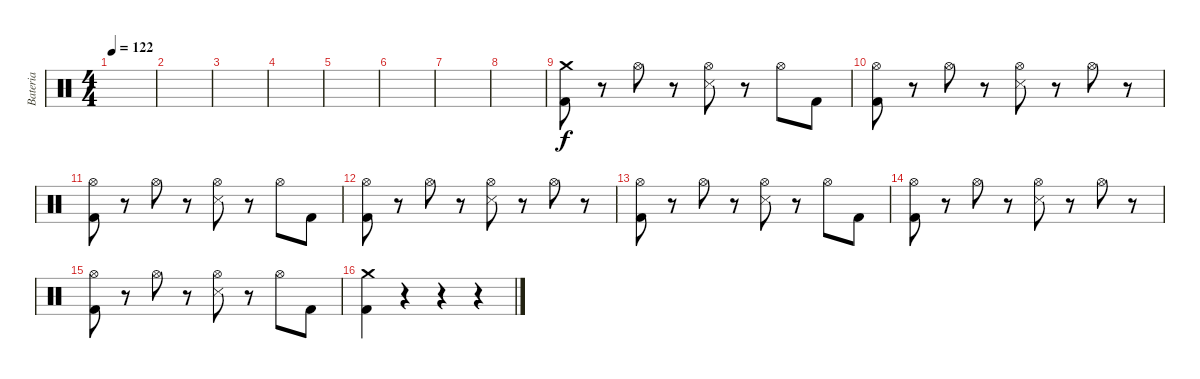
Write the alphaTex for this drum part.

\track ("Bateria" "Bateria") {instrument percussion}
\staff {score}
\articulation defaults
\ts (4 4)
\tempo 122
\clef neutral
\ks c
|
|
|
|
|
|
|
|
("Crash medium (hit)" "Kick (hit) 2").8 r.8 "Hi-Hat (open)".8 r.8 ("Hi-Hat (open)" "Snare (side stick) 3").8 r.8 "Hi-Hat (open)".8 "Kick (hit) 2".8 |
("Hi-Hat (open)" "Kick (hit) 2").8 r.8 "Hi-Hat (open)".8 r.8 ("Hi-Hat (open)" "Snare (side stick) 3").8 r.8 "Hi-Hat (open)".8 r.8 |
("Hi-Hat (open)" "Kick (hit) 2").8 r.8 "Hi-Hat (open)".8 r.8 ("Hi-Hat (open)" "Snare (side stick) 3").8 r.8 "Hi-Hat (open)".8 "Kick (hit) 2".8 |
("Hi-Hat (open)" "Kick (hit) 2").8 r.8 "Hi-Hat (open)".8 r.8 ("Hi-Hat (open)" "Snare (side stick) 3").8 r.8 "Hi-Hat (open)".8 r.8 |
("Hi-Hat (open)" "Kick (hit) 2").8 r.8 "Hi-Hat (open)".8 r.8 ("Hi-Hat (open)" "Snare (side stick) 3").8 r.8 "Hi-Hat (open)".8 "Kick (hit) 2".8 |
("Hi-Hat (open)" "Kick (hit) 2").8 r.8 "Hi-Hat (open)".8 r.8 ("Hi-Hat (open)" "Snare (side stick) 3").8 r.8 "Hi-Hat (open)".8 r.8 |
("Hi-Hat (open)" "Kick (hit) 2").8 r.8 "Hi-Hat (open)".8 r.8 ("Hi-Hat (open)" "Snare (side stick) 3").8 r.8 "Hi-Hat (open)".8 "Kick (hit) 2".8 |
("Crash medium (hit)" "Kick (hit) 2").4 r.4 r.4 r.4
